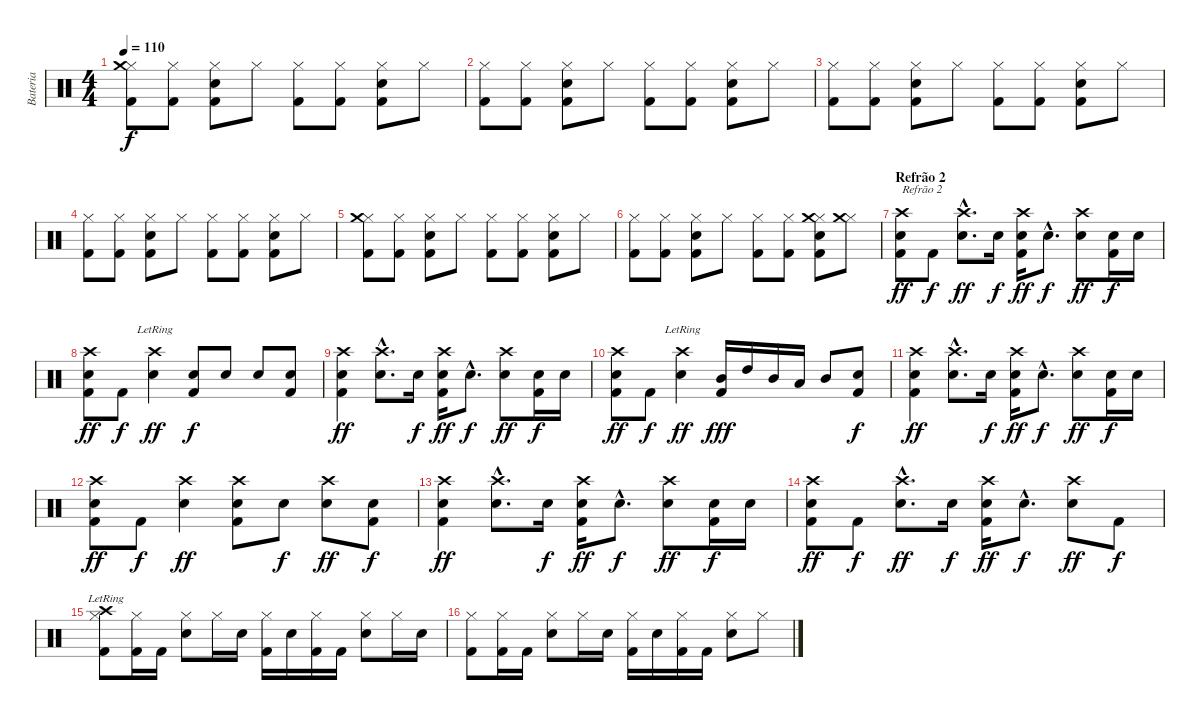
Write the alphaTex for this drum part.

\track ("Bateria" "Bateria") {instrument percussion}
\staff {score}
\articulation defaults
\ts (4 4)
\tempo 110
\clef neutral
\ks c
("Hi-Hat (closed)" "Kick (hit) 2" "Crash medium (hit)").8{dy f} ("Hi-Hat (closed)" "Kick (hit) 2").8 ("Hi-Hat (closed)" "Kick (hit) 2" "Metronome (bell)").8 "Hi-Hat (closed)".8 ("Hi-Hat (closed)" "Kick (hit) 2").8 ("Hi-Hat (closed)" "Kick (hit) 2").8 ("Hi-Hat (closed)" "Kick (hit) 2" "Metronome (bell)").8 "Hi-Hat (closed)".8 |
("Hi-Hat (closed)" "Kick (hit) 2").8 ("Hi-Hat (closed)" "Kick (hit) 2").8 ("Hi-Hat (closed)" "Kick (hit) 2" "Metronome (bell)").8 "Hi-Hat (closed)".8 ("Hi-Hat (closed)" "Kick (hit) 2").8 ("Hi-Hat (closed)" "Kick (hit) 2").8 ("Hi-Hat (closed)" "Kick (hit) 2" "Metronome (bell)").8 "Hi-Hat (closed)".8 |
("Hi-Hat (closed)" "Kick (hit) 2").8 ("Hi-Hat (closed)" "Kick (hit) 2").8 ("Hi-Hat (closed)" "Kick (hit) 2" "Metronome (bell)").8 "Hi-Hat (closed)".8 ("Hi-Hat (closed)" "Kick (hit) 2").8 ("Hi-Hat (closed)" "Kick (hit) 2").8 ("Hi-Hat (closed)" "Kick (hit) 2" "Metronome (bell)").8 "Hi-Hat (closed)".8 |
("Hi-Hat (closed)" "Kick (hit) 2").8 ("Hi-Hat (closed)" "Kick (hit) 2").8 ("Hi-Hat (closed)" "Kick (hit) 2" "Metronome (bell)").8 "Hi-Hat (closed)".8 ("Hi-Hat (closed)" "Kick (hit) 2").8 ("Hi-Hat (closed)" "Kick (hit) 2").8 ("Hi-Hat (closed)" "Kick (hit) 2" "Metronome (bell)").8 "Hi-Hat (closed)".8 |
("Hi-Hat (closed)" "Kick (hit) 2" "Crash medium (hit)").8 ("Hi-Hat (closed)" "Kick (hit) 2").8 ("Hi-Hat (closed)" "Kick (hit) 2" "Metronome (bell)").8 "Hi-Hat (closed)".8 ("Hi-Hat (closed)" "Kick (hit) 2").8 ("Hi-Hat (closed)" "Kick (hit) 2").8 ("Hi-Hat (closed)" "Kick (hit) 2" "Metronome (bell)").8 "Hi-Hat (closed)".8 |
("Hi-Hat (closed)" "Kick (hit) 2").8 ("Hi-Hat (closed)" "Kick (hit) 2").8 ("Hi-Hat (closed)" "Kick (hit) 2" "Metronome (bell)").8 "Hi-Hat (closed)".8 ("Hi-Hat (closed)" "Kick (hit) 2").8 ("Hi-Hat (closed)" "Kick (hit) 2").8 ("Hi-Hat (closed)" "Kick (hit) 2" "Metronome (bell)" "Crash medium (hit)").8 ("Hi-Hat (closed)" "Crash medium (hit)").8 |
\section ("" "Refrão 2")
("Kick (hit) 2" "Electric Snare (hit)" "Crash high (hit)").8{txt "Refrão 2" dy ff} "Kick (hit) 2".8{dy f} ("Electric Snare (hit)"{hac} "Crash high (hit)"{hac}).8{d dy ff} "Metronome (bell)".16{dy f} ("Kick (hit) 2" "Electric Snare (hit)" "Crash high (hit)").16{dy ff} "Metronome (bell)"{hac}.8{d dy f} ("Metronome (bell)" "Crash high (hit)").8{dy ff} ("Kick (hit) 2" "Metronome (bell)").16{dy f} "Electric Snare (hit)".16 |
("Kick (hit) 2" "Metronome (bell)" "Crash high (hit)").8{dy ff} "Kick (hit) 2".8{dy f} ("Electric Snare (hit)" "Crash high (hit)"{lr}).4{dy ff} ("Kick (hit) 2" "Metronome (bell)").8{dy f} "Metronome (bell)".8 "Metronome (bell)".8 ("Kick (hit) 2" "Metronome (bell)").8 |
("Kick (hit) 2" "Electric Snare (hit)" "Crash high (hit)").4{dy ff} ("Electric Snare (hit)"{hac} "Crash high (hit)"{hac}).8{d} "Metronome (bell)".16{dy f} ("Kick (hit) 2" "Electric Snare (hit)" "Crash high (hit)").16{dy ff} "Metronome (bell)"{hac}.8{d dy f} ("Metronome (bell)" "Crash high (hit)").8{dy ff} ("Kick (hit) 2" "Metronome (bell)").16{dy f} "Electric Snare (hit)".16 |
("Kick (hit) 2" "Electric Snare (hit)" "Crash high (hit)").8{dy ff} "Kick (hit) 2".8{dy f} ("Electric Snare (hit)" "Crash high (hit)"{lr}).4{dy ff} ("Kick (hit) 2" "Mid Tom (hit)").16{dy fff} "High Tom (hit)".16 "Mid Tom (hit)".16 "Low Tom (hit)".16 "Mid Tom (hit)".8 ("Kick (hit) 2" "Electric Snare (hit)").8{dy f} |
("Kick (hit) 2" "Electric Snare (hit)" "Crash high (hit)").4{dy ff} ("Electric Snare (hit)"{hac} "Crash high (hit)"{hac}).8{d} "Metronome (bell)".16{dy f} ("Kick (hit) 2" "Electric Snare (hit)" "Crash high (hit)").16{dy ff} "Metronome (bell)"{hac}.8{d dy f} ("Metronome (bell)" "Crash high (hit)").8{dy ff} ("Kick (hit) 2" "Metronome (bell)").16{dy f} "Electric Snare (hit)".16 |
("Kick (hit) 2" "Metronome (bell)" "Crash high (hit)").8{dy ff} "Kick (hit) 2".8{dy f} ("Electric Snare (hit)" "Crash high (hit)").4{dy ff} ("Kick (hit) 2" "Metronome (bell)" "Crash high (hit)").8 "Metronome (bell)".8{dy f} ("Metronome (bell)" "Crash high (hit)").8{dy ff} ("Kick (hit) 2" "Metronome (bell)").8{dy f} |
("Kick (hit) 2" "Electric Snare (hit)" "Crash high (hit)").4{dy ff} ("Electric Snare (hit)"{hac} "Crash high (hit)"{hac}).8{d} "Metronome (bell)".16{dy f} ("Kick (hit) 2" "Electric Snare (hit)" "Crash high (hit)").16{dy ff} "Metronome (bell)"{hac}.8{d dy f} ("Metronome (bell)" "Crash high (hit)").8{dy ff} ("Kick (hit) 2" "Metronome (bell)").16{dy f} "Electric Snare (hit)".16 |
("Kick (hit) 2" "Metronome (bell)" "Crash high (hit)").8{dy ff} "Kick (hit) 2".8{dy f} ("Electric Snare (hit)"{hac} "Crash high (hit)"{hac}).8{d dy ff} "Electric Snare (hit)".16{dy f} ("Kick (hit) 2" "Metronome (bell)" "Crash high (hit)").16{dy ff} "Electric Snare (hit)"{hac}.8{d dy f} ("Metronome (bell)" "Crash high (hit)").8{dy ff} "Kick (hit) 2".8{dy f} |
("Hi-Hat (closed)" "Kick (hit) 2" "Crash high (hit)"{lr}).8 ("Hi-Hat (closed)" "Kick (hit) 2").16 "Kick (hit) 2".16 ("Hi-Hat (closed)" "Metronome (bell)").8 "Hi-Hat (closed)".16 "Metronome (bell)".16 ("Hi-Hat (closed)" "Kick (hit) 2").16 "Metronome (bell)".16 ("Hi-Hat (closed)" "Kick (hit) 2").16 "Kick (hit) 2".16 ("Hi-Hat (closed)" "Metronome (bell)").8 "Hi-Hat (closed)".16 "Metronome (bell)".16 |
("Hi-Hat (closed)" "Kick (hit) 2").8 ("Hi-Hat (closed)" "Kick (hit) 2").16 "Kick (hit) 2".16 ("Hi-Hat (closed)" "Metronome (bell)").8 "Hi-Hat (closed)".16 "Metronome (bell)".16 ("Hi-Hat (closed)" "Kick (hit) 2").16 "Metronome (bell)".16 ("Hi-Hat (closed)" "Kick (hit) 2").16 "Kick (hit) 2".16 ("Hi-Hat (closed)" "Metronome (bell)").8 "Hi-Hat (closed)".8
